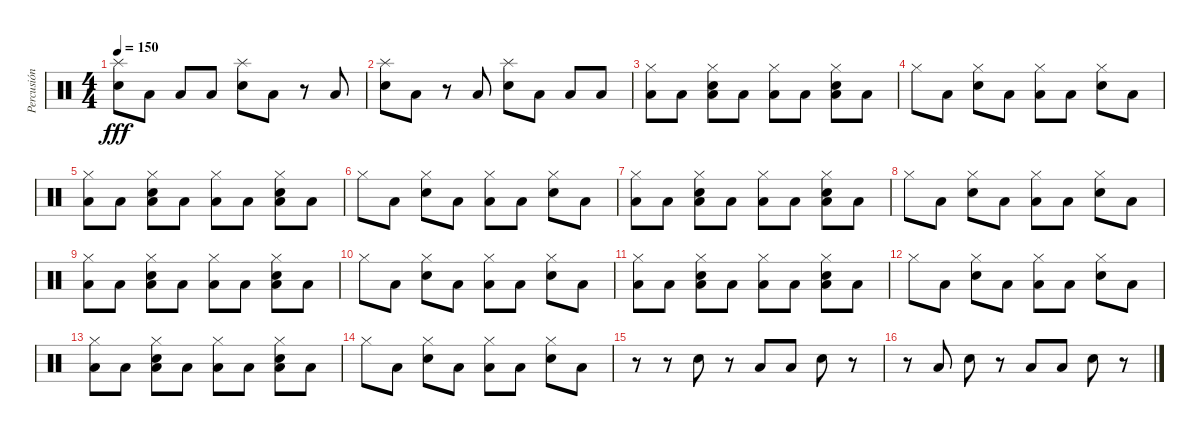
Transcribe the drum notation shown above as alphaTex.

\track ("Percusión" "Percusión") {instrument percussion}
\staff {score}
\articulation defaults
\ts (4 4)
\tempo 150
\clef neutral
\ks c
("Splash (hit)" "Snare (hit) 2").8{dy fff} "Low Tom (hit)".8 "Low Tom (hit)".8 "Low Tom (hit)".8 ("Splash (hit)" "Snare (hit) 2").8 "Low Tom (hit)".8 r.8 "Low Tom (hit)".8 |
("Splash (hit)" "Snare (hit) 2").8 "Low Tom (hit)".8 r.8 "Low Tom (hit)".8 ("Splash (hit)" "Snare (hit) 2").8 "Low Tom (hit)".8 "Low Tom (hit)".8 "Low Tom (hit)".8 |
("Hi-Hat (closed)" "Low Tom (hit)").8 "Low Tom (hit)".8 ("Low Tom (hit)" "Hi-Hat (closed)" "Snare (hit) 2").8 "Low Tom (hit)".8 ("Hi-Hat (closed)" "Low Tom (hit)").8 "Low Tom (hit)".8 ("Low Tom (hit)" "Hi-Hat (closed)" "Snare (hit) 2").8 "Low Tom (hit)".8 |
"Hi-Hat (closed)".8 "Low Tom (hit)".8 ("Hi-Hat (closed)" "Snare (hit) 2").8 "Low Tom (hit)".8 ("Hi-Hat (closed)" "Low Tom (hit)").8 "Low Tom (hit)".8 ("Hi-Hat (closed)" "Snare (hit) 2").8 "Low Tom (hit)".8 |
("Hi-Hat (closed)" "Low Tom (hit)").8 "Low Tom (hit)".8 ("Low Tom (hit)" "Hi-Hat (closed)" "Snare (hit) 2").8 "Low Tom (hit)".8 ("Hi-Hat (closed)" "Low Tom (hit)").8 "Low Tom (hit)".8 ("Low Tom (hit)" "Hi-Hat (closed)" "Snare (hit) 2").8 "Low Tom (hit)".8 |
"Hi-Hat (closed)".8 "Low Tom (hit)".8 ("Hi-Hat (closed)" "Snare (hit) 2").8 "Low Tom (hit)".8 ("Hi-Hat (closed)" "Low Tom (hit)").8 "Low Tom (hit)".8 ("Hi-Hat (closed)" "Snare (hit) 2").8 "Low Tom (hit)".8 |
("Hi-Hat (closed)" "Low Tom (hit)").8 "Low Tom (hit)".8 ("Low Tom (hit)" "Hi-Hat (closed)" "Snare (hit) 2").8 "Low Tom (hit)".8 ("Hi-Hat (closed)" "Low Tom (hit)").8 "Low Tom (hit)".8 ("Low Tom (hit)" "Hi-Hat (closed)" "Snare (hit) 2").8 "Low Tom (hit)".8 |
"Hi-Hat (closed)".8 "Low Tom (hit)".8 ("Hi-Hat (closed)" "Snare (hit) 2").8 "Low Tom (hit)".8 ("Hi-Hat (closed)" "Low Tom (hit)").8 "Low Tom (hit)".8 ("Hi-Hat (closed)" "Snare (hit) 2").8 "Low Tom (hit)".8 |
("Hi-Hat (closed)" "Low Tom (hit)").8 "Low Tom (hit)".8 ("Low Tom (hit)" "Hi-Hat (closed)" "Snare (hit) 2").8 "Low Tom (hit)".8 ("Hi-Hat (closed)" "Low Tom (hit)").8 "Low Tom (hit)".8 ("Low Tom (hit)" "Hi-Hat (closed)" "Snare (hit) 2").8 "Low Tom (hit)".8 |
"Hi-Hat (closed)".8 "Low Tom (hit)".8 ("Hi-Hat (closed)" "Snare (hit) 2").8 "Low Tom (hit)".8 ("Hi-Hat (closed)" "Low Tom (hit)").8 "Low Tom (hit)".8 ("Hi-Hat (closed)" "Snare (hit) 2").8 "Low Tom (hit)".8 |
("Hi-Hat (closed)" "Low Tom (hit)").8 "Low Tom (hit)".8 ("Low Tom (hit)" "Hi-Hat (closed)" "Snare (hit) 2").8 "Low Tom (hit)".8 ("Hi-Hat (closed)" "Low Tom (hit)").8 "Low Tom (hit)".8 ("Low Tom (hit)" "Hi-Hat (closed)" "Snare (hit) 2").8 "Low Tom (hit)".8 |
"Hi-Hat (closed)".8 "Low Tom (hit)".8 ("Hi-Hat (closed)" "Snare (hit) 2").8 "Low Tom (hit)".8 ("Hi-Hat (closed)" "Low Tom (hit)").8 "Low Tom (hit)".8 ("Hi-Hat (closed)" "Snare (hit) 2").8 "Low Tom (hit)".8 |
("Hi-Hat (closed)" "Low Tom (hit)").8 "Low Tom (hit)".8 ("Low Tom (hit)" "Hi-Hat (closed)" "Snare (hit) 2").8 "Low Tom (hit)".8 ("Hi-Hat (closed)" "Low Tom (hit)").8 "Low Tom (hit)".8 ("Low Tom (hit)" "Hi-Hat (closed)" "Snare (hit) 2").8 "Low Tom (hit)".8 |
"Hi-Hat (closed)".8 "Low Tom (hit)".8 ("Hi-Hat (closed)" "Snare (hit) 2").8 "Low Tom (hit)".8 ("Hi-Hat (closed)" "Low Tom (hit)").8 "Low Tom (hit)".8 ("Hi-Hat (closed)" "Snare (hit) 2").8 "Low Tom (hit)".8 |
r.8 r.8 "Snare (hit) 2".8 r.8 "Low Tom (hit)".8 "Low Tom (hit)".8 "Snare (hit) 2".8 r.8 |
r.8 "Low Tom (hit)".8 "Snare (hit) 2".8 r.8 "Low Tom (hit)".8 "Low Tom (hit)".8 "Snare (hit) 2".8 r.8
